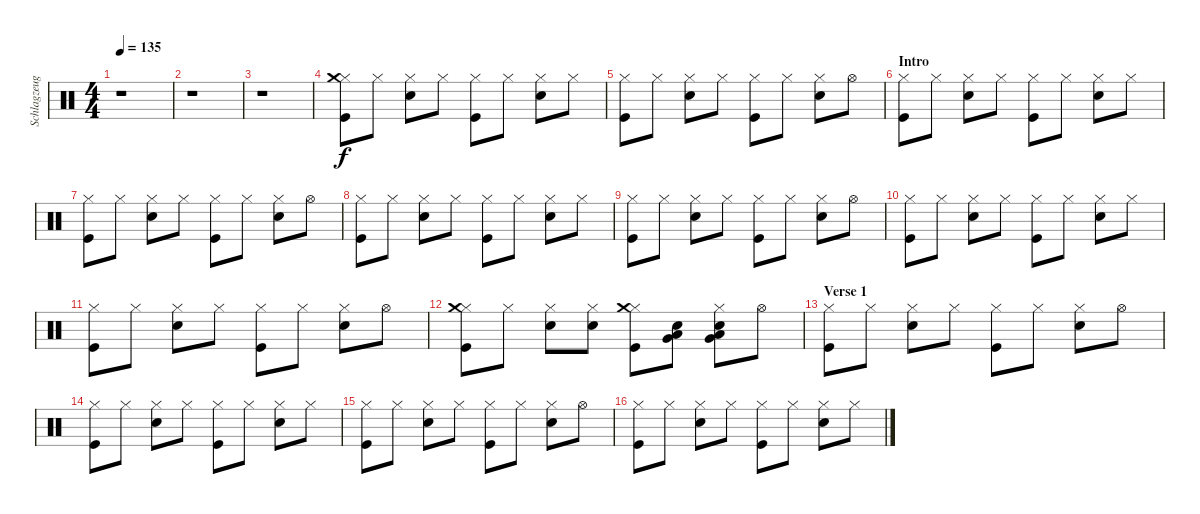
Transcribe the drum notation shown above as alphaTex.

\track ("Schlagzeug - Bela B." "Schlagzeug") {instrument percussion}
\staff {score}
\articulation defaults
\ts (4 4)
\tempo 135
\clef neutral
\ks c
r.1{dy f} |
r.1 |
r.1 |
("Kick (hit)" "Hi-Hat (closed)" "Crash medium (hit)").8 "Hi-Hat (closed)".8 ("Electric Snare (hit)" "Hi-Hat (closed)").8 "Hi-Hat (closed)".8 ("Kick (hit)" "Hi-Hat (closed)").8 "Hi-Hat (closed)".8 ("Electric Snare (hit)" "Hi-Hat (closed)").8 "Hi-Hat (closed)".8 |
("Kick (hit)" "Hi-Hat (closed)").8 "Hi-Hat (closed)".8 ("Electric Snare (hit)" "Hi-Hat (closed)").8 "Hi-Hat (closed)".8 ("Kick (hit)" "Hi-Hat (closed)").8 "Hi-Hat (closed)".8 ("Electric Snare (hit)" "Hi-Hat (closed)").8 "Hi-Hat (open)".8 |
\section ("" "Intro")
("Kick (hit)" "Hi-Hat (closed)").8 "Hi-Hat (closed)".8 ("Electric Snare (hit)" "Hi-Hat (closed)").8 "Hi-Hat (closed)".8 ("Kick (hit)" "Hi-Hat (closed)").8 "Hi-Hat (closed)".8 ("Electric Snare (hit)" "Hi-Hat (closed)").8 "Hi-Hat (closed)".8 |
("Kick (hit)" "Hi-Hat (closed)").8 "Hi-Hat (closed)".8 ("Electric Snare (hit)" "Hi-Hat (closed)").8 "Hi-Hat (closed)".8 ("Kick (hit)" "Hi-Hat (closed)").8 "Hi-Hat (closed)".8 ("Electric Snare (hit)" "Hi-Hat (closed)").8 "Hi-Hat (open)".8 |
("Kick (hit)" "Hi-Hat (closed)").8 "Hi-Hat (closed)".8 ("Electric Snare (hit)" "Hi-Hat (closed)").8 "Hi-Hat (closed)".8 ("Kick (hit)" "Hi-Hat (closed)").8 "Hi-Hat (closed)".8 ("Electric Snare (hit)" "Hi-Hat (closed)").8 "Hi-Hat (closed)".8 |
("Kick (hit)" "Hi-Hat (closed)").8 "Hi-Hat (closed)".8 ("Electric Snare (hit)" "Hi-Hat (closed)").8 "Hi-Hat (closed)".8 ("Kick (hit)" "Hi-Hat (closed)").8 "Hi-Hat (closed)".8 ("Electric Snare (hit)" "Hi-Hat (closed)").8 "Hi-Hat (open)".8 |
("Kick (hit)" "Hi-Hat (closed)").8 "Hi-Hat (closed)".8 ("Electric Snare (hit)" "Hi-Hat (closed)").8 "Hi-Hat (closed)".8 ("Kick (hit)" "Hi-Hat (closed)").8 "Hi-Hat (closed)".8 ("Electric Snare (hit)" "Hi-Hat (closed)").8 "Hi-Hat (closed)".8 |
("Kick (hit)" "Hi-Hat (closed)").8 "Hi-Hat (closed)".8 ("Electric Snare (hit)" "Hi-Hat (closed)").8 "Hi-Hat (closed)".8 ("Kick (hit)" "Hi-Hat (closed)").8 "Hi-Hat (closed)".8 ("Electric Snare (hit)" "Hi-Hat (closed)").8 "Hi-Hat (open)".8 |
("Kick (hit)" "Hi-Hat (closed)" "Crash medium (hit)").8 "Hi-Hat (closed)".8 ("Electric Snare (hit)" "Hi-Hat (closed)").8 ("Hi-Hat (closed)" "Electric Snare (hit)").8 ("Kick (hit)" "Hi-Hat (closed)" "Crash medium (hit)").8 ("Electric Snare (hit)" "Low Floor Tom (hit)" "Very Low Tom (hit)").8 ("Electric Snare (hit)" "Hi-Hat (closed)" "Low Floor Tom (hit)" "Very Low Tom (hit)").8 "Hi-Hat (open)".8 |
\section ("" "Verse 1")
("Kick (hit)" "Hi-Hat (closed)").8 "Hi-Hat (closed)".8 ("Electric Snare (hit)" "Hi-Hat (closed)").8 "Hi-Hat (closed)".8 ("Kick (hit)" "Hi-Hat (closed)").8 "Hi-Hat (closed)".8 ("Electric Snare (hit)" "Hi-Hat (closed)").8 "Hi-Hat (open)".8 |
("Kick (hit)" "Hi-Hat (closed)").8 "Hi-Hat (closed)".8 ("Electric Snare (hit)" "Hi-Hat (closed)").8 "Hi-Hat (closed)".8 ("Kick (hit)" "Hi-Hat (closed)").8 "Hi-Hat (closed)".8 ("Electric Snare (hit)" "Hi-Hat (closed)").8 "Hi-Hat (closed)".8 |
("Kick (hit)" "Hi-Hat (closed)").8 "Hi-Hat (closed)".8 ("Electric Snare (hit)" "Hi-Hat (closed)").8 "Hi-Hat (closed)".8 ("Kick (hit)" "Hi-Hat (closed)").8 "Hi-Hat (closed)".8 ("Electric Snare (hit)" "Hi-Hat (closed)").8 "Hi-Hat (open)".8 |
("Kick (hit)" "Hi-Hat (closed)").8 "Hi-Hat (closed)".8 ("Electric Snare (hit)" "Hi-Hat (closed)").8 "Hi-Hat (closed)".8 ("Kick (hit)" "Hi-Hat (closed)").8 "Hi-Hat (closed)".8 ("Electric Snare (hit)" "Hi-Hat (closed)").8 "Hi-Hat (closed)".8
